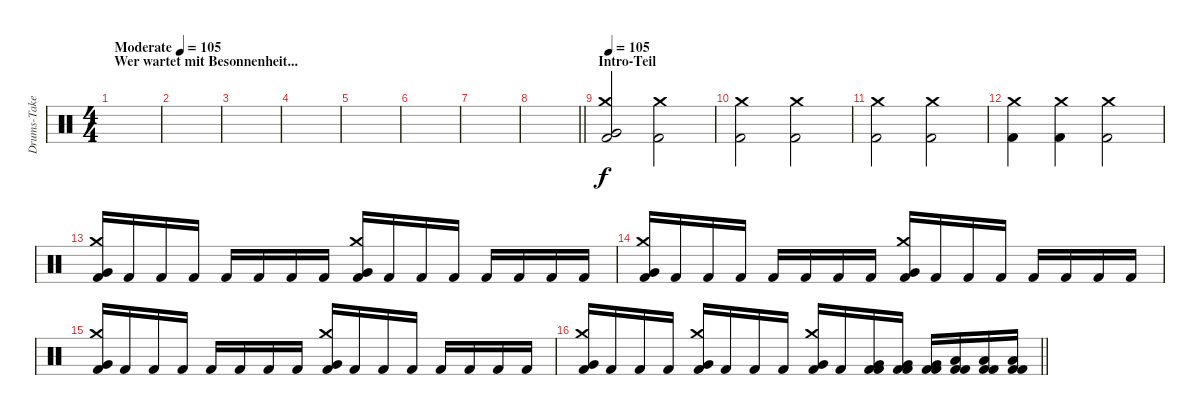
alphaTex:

\track ("Drums-Take the midi one!" "Drums-Take") {instrument percussion}
\staff {score}
\articulation defaults
\ts (4 4)
\section ("" "Wer wartet mit Besonnenheit...")
\tempo (105 "Moderate")
\tempo 80
\tempo (105 "Moderate")
\clef neutral
\ks c
|
|
|
|
|
|
|
\barLineRight lightlight
|
\section ("" "Intro-Teil")
\tempo 105
("Kick (hit) 2" "Crash medium (hit)" "Very Low Tom (hit)").2 ("Kick (hit) 2" "Crash medium (hit)").2 |
("Kick (hit) 2" "Crash medium (hit)").2 ("Kick (hit) 2" "Crash medium (hit)").2 |
("Kick (hit) 2" "Crash medium (hit)").2 ("Kick (hit) 2" "Crash medium (hit)").2 |
("Kick (hit) 2" "Crash medium (hit)").4 ("Kick (hit) 2" "Crash medium (hit)").4 ("Kick (hit) 2" "Crash medium (hit)").2 |
("Kick (hit) 2" "Crash medium (hit)" "Very Low Tom (hit)").16 "Kick (hit) 2".16 "Kick (hit) 2".16 "Kick (hit) 2".16 "Kick (hit) 2".16 "Kick (hit) 2".16 "Kick (hit) 2".16 "Kick (hit) 2".16 ("Kick (hit) 2" "Crash medium (hit)" "Very Low Tom (hit)").16 "Kick (hit) 2".16 "Kick (hit) 2".16 "Kick (hit) 2".16 "Kick (hit) 2".16 "Kick (hit) 2".16 "Kick (hit) 2".16 "Kick (hit) 2".16 |
("Kick (hit) 2" "Crash medium (hit)" "Very Low Tom (hit)").16 "Kick (hit) 2".16 "Kick (hit) 2".16 "Kick (hit) 2".16 "Kick (hit) 2".16 "Kick (hit) 2".16 "Kick (hit) 2".16 "Kick (hit) 2".16 ("Kick (hit) 2" "Crash medium (hit)" "Very Low Tom (hit)").16 "Kick (hit) 2".16 "Kick (hit) 2".16 "Kick (hit) 2".16 "Kick (hit) 2".16 "Kick (hit) 2".16 "Kick (hit) 2".16 "Kick (hit) 2".16 |
("Kick (hit) 2" "Crash medium (hit)" "Very Low Tom (hit)").16 "Kick (hit) 2".16 "Kick (hit) 2".16 "Kick (hit) 2".16 "Kick (hit) 2".16 "Kick (hit) 2".16 "Kick (hit) 2".16 "Kick (hit) 2".16 ("Kick (hit) 2" "Crash medium (hit)" "Very Low Tom (hit)").16 "Kick (hit) 2".16 "Kick (hit) 2".16 "Kick (hit) 2".16 "Kick (hit) 2".16 "Kick (hit) 2".16 "Kick (hit) 2".16 "Kick (hit) 2".16 |
\barLineRight lightlight
("Kick (hit) 2" "Crash medium (hit)" "Very Low Tom (hit)").16 "Kick (hit) 2".16 "Kick (hit) 2".16 "Kick (hit) 2".16 ("Kick (hit) 2" "Crash medium (hit)" "Very Low Tom (hit)").16 "Kick (hit) 2".16 "Kick (hit) 2".16 "Kick (hit) 2".16 ("Kick (hit) 2" "Crash medium (hit)" "Very Low Tom (hit)").16 "Kick (hit) 2".16 ("Kick (hit) 2" "Kick (hit) 2" "Very Low Tom (hit)").16 ("Kick (hit) 2" "Kick (hit) 2" "Very Low Tom (hit)").16 ("Kick (hit) 2" "Kick (hit) 2" "Very Low Tom (hit)").16 ("Kick (hit) 2" "Kick (hit) 2" "Low Floor Tom (hit)").16 ("Kick (hit) 2" "Kick (hit) 2" "Low Floor Tom (hit)").16 ("Kick (hit) 2" "Kick (hit) 2" "Low Floor Tom (hit)").16
